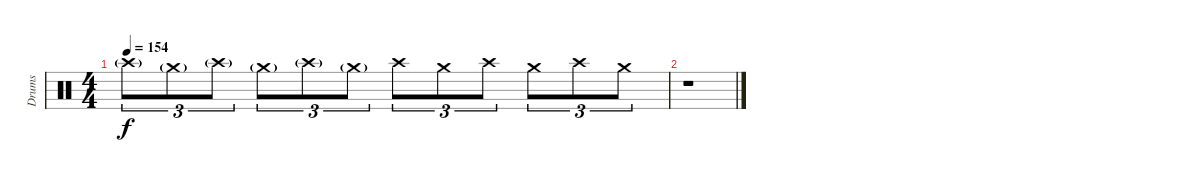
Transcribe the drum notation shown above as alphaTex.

\track ("Drums" "Drums") {instrument percussion}
\staff {score}
\articulation defaults
\ts (4 4)
\tempo 154
\clef neutral
\ks c "Crash high (hit)"{g}.8{tu (3 2) dy f} "Crash medium (hit)"{g}.8{tu (3 2)} "Crash high (hit)"{g}.8{tu (3 2)} "Crash medium (hit)"{g}.8{tu (3 2)} "Crash high (hit)"{g}.8{tu (3 2)} "Crash medium (hit)"{g}.8{tu (3 2)} "Crash high (hit)".8{tu (3 2)} "Crash medium (hit)".8{tu (3 2)} "Crash high (hit)".8{tu (3 2)} "Crash medium (hit)".8{tu (3 2)} "Crash high (hit)".8{tu (3 2)} "Crash medium (hit)".8{tu (3 2)}
|
r.1
